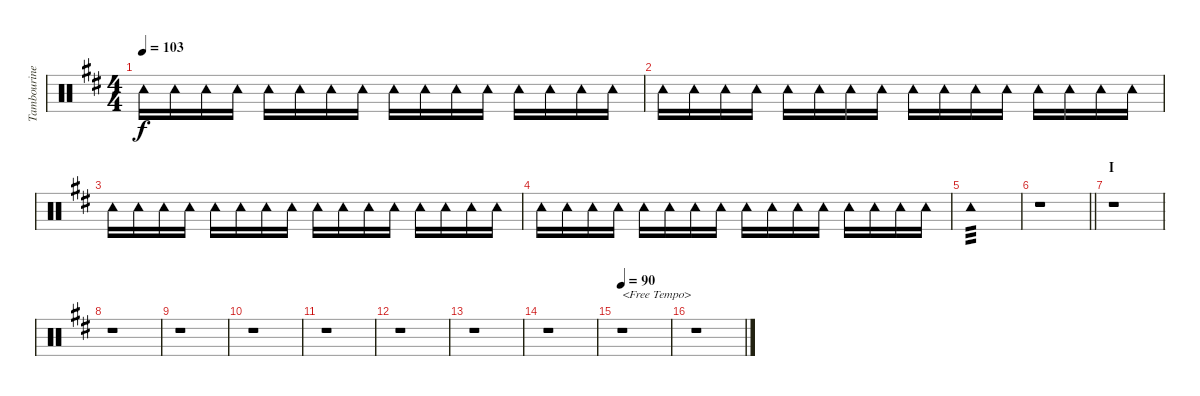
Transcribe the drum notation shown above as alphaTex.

\track ("Tambourine" "Tambourine") {instrument percussion}
\staff {score}
\articulation defaults
\ts (4 4)
\tempo 103
\clef neutral
\ks d "Tambourine (hit)".16{dy f} "Tambourine (hit)".16 "Tambourine (hit)".16 "Tambourine (hit)".16 "Tambourine (hit)".16 "Tambourine (hit)".16 "Tambourine (hit)".16 "Tambourine (hit)".16 "Tambourine (hit)".16 "Tambourine (hit)".16 "Tambourine (hit)".16 "Tambourine (hit)".16 "Tambourine (hit)".16 "Tambourine (hit)".16 "Tambourine (hit)".16 "Tambourine (hit)".16
|
"Tambourine (hit)".16 "Tambourine (hit)".16 "Tambourine (hit)".16 "Tambourine (hit)".16 "Tambourine (hit)".16 "Tambourine (hit)".16 "Tambourine (hit)".16 "Tambourine (hit)".16 "Tambourine (hit)".16 "Tambourine (hit)".16 "Tambourine (hit)".16 "Tambourine (hit)".16 "Tambourine (hit)".16 "Tambourine (hit)".16 "Tambourine (hit)".16 "Tambourine (hit)".16 |
"Tambourine (hit)".16 "Tambourine (hit)".16 "Tambourine (hit)".16 "Tambourine (hit)".16 "Tambourine (hit)".16 "Tambourine (hit)".16 "Tambourine (hit)".16 "Tambourine (hit)".16 "Tambourine (hit)".16 "Tambourine (hit)".16 "Tambourine (hit)".16 "Tambourine (hit)".16 "Tambourine (hit)".16 "Tambourine (hit)".16 "Tambourine (hit)".16 "Tambourine (hit)".16 |
"Tambourine (hit)".16 "Tambourine (hit)".16 "Tambourine (hit)".16 "Tambourine (hit)".16 "Tambourine (hit)".16 "Tambourine (hit)".16 "Tambourine (hit)".16 "Tambourine (hit)".16 "Tambourine (hit)".16 "Tambourine (hit)".16 "Tambourine (hit)".16 "Tambourine (hit)".16 "Tambourine (hit)".16 "Tambourine (hit)".16 "Tambourine (hit)".16 "Tambourine (hit)".16 |
"Tambourine (hit)".1{tp 3} |
\barLineRight lightlight
r.1 |
\section ("" "I")
r.1 |
r.1 |
r.1 |
r.1 |
r.1 |
r.1 |
r.1 |
r.1 |
\tempo 90
r.1{txt "<Free Tempo>"} |
r.1
